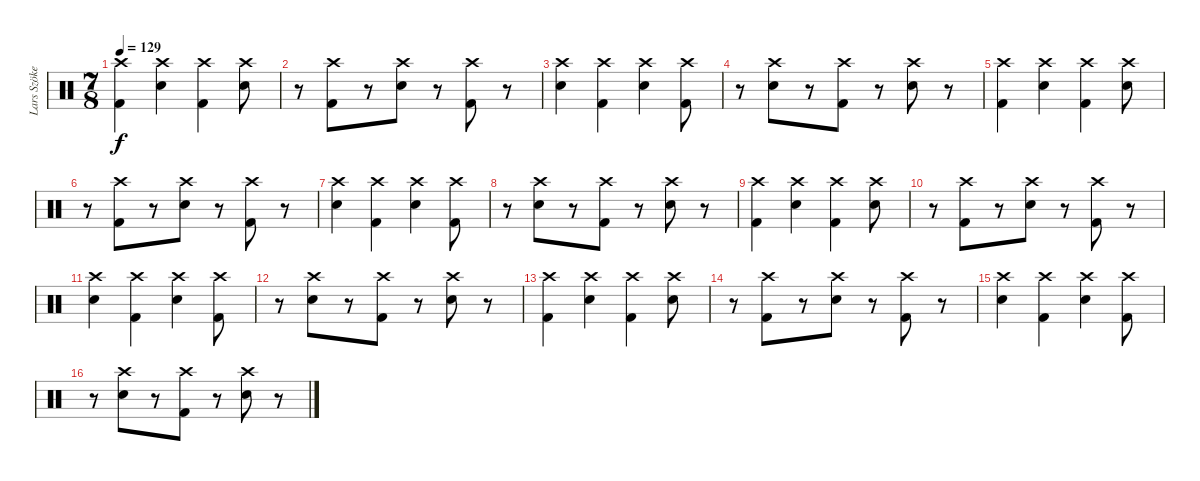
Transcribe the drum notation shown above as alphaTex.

\track ("Lars Szöke" "Lars Szöke") {instrument percussion}
\staff {score}
\articulation defaults
\ts (7 8)
\tempo 129
\clef neutral
\ks c
("Crash high (hit)" "Kick (hit) 2").4{dy f} ("Crash high (hit)" "Snare (hit) 2").4 ("Crash high (hit)" "Kick (hit) 2").4 ("Crash high (hit)" "Snare (hit) 2").8 |
r.8 ("Crash high (hit)" "Kick (hit) 2").8 r.8 ("Crash high (hit)" "Snare (hit) 2").8 r.8 ("Crash high (hit)" "Kick (hit) 2").8 r.8 |
("Crash high (hit)" "Snare (hit) 2").4 ("Crash high (hit)" "Kick (hit) 2").4 ("Crash high (hit)" "Snare (hit) 2").4 ("Crash high (hit)" "Kick (hit) 2").8 |
r.8 ("Crash high (hit)" "Snare (hit) 2").8 r.8 ("Crash high (hit)" "Kick (hit) 2").8 r.8 ("Crash high (hit)" "Snare (hit) 2").8 r.8 |
("Crash high (hit)" "Kick (hit) 2").4 ("Crash high (hit)" "Snare (hit) 2").4 ("Crash high (hit)" "Kick (hit) 2").4 ("Crash high (hit)" "Snare (hit) 2").8 |
r.8 ("Crash high (hit)" "Kick (hit) 2").8 r.8 ("Crash high (hit)" "Snare (hit) 2").8 r.8 ("Crash high (hit)" "Kick (hit) 2").8 r.8 |
("Crash high (hit)" "Snare (hit) 2").4 ("Crash high (hit)" "Kick (hit) 2").4 ("Crash high (hit)" "Snare (hit) 2").4 ("Crash high (hit)" "Kick (hit) 2").8 |
r.8 ("Crash high (hit)" "Snare (hit) 2").8 r.8 ("Crash high (hit)" "Kick (hit) 2").8 r.8 ("Crash high (hit)" "Snare (hit) 2").8 r.8 |
("Crash high (hit)" "Kick (hit) 2").4 ("Crash high (hit)" "Snare (hit) 2").4 ("Crash high (hit)" "Kick (hit) 2").4 ("Crash high (hit)" "Snare (hit) 2").8 |
r.8 ("Crash high (hit)" "Kick (hit) 2").8 r.8 ("Crash high (hit)" "Snare (hit) 2").8 r.8 ("Crash high (hit)" "Kick (hit) 2").8 r.8 |
("Crash high (hit)" "Snare (hit) 2").4 ("Crash high (hit)" "Kick (hit) 2").4 ("Crash high (hit)" "Snare (hit) 2").4 ("Crash high (hit)" "Kick (hit) 2").8 |
r.8 ("Crash high (hit)" "Snare (hit) 2").8 r.8 ("Crash high (hit)" "Kick (hit) 2").8 r.8 ("Crash high (hit)" "Snare (hit) 2").8 r.8 |
("Crash high (hit)" "Kick (hit) 2").4 ("Crash high (hit)" "Snare (hit) 2").4 ("Crash high (hit)" "Kick (hit) 2").4 ("Crash high (hit)" "Snare (hit) 2").8 |
r.8 ("Crash high (hit)" "Kick (hit) 2").8 r.8 ("Crash high (hit)" "Snare (hit) 2").8 r.8 ("Crash high (hit)" "Kick (hit) 2").8 r.8 |
("Crash high (hit)" "Snare (hit) 2").4 ("Crash high (hit)" "Kick (hit) 2").4 ("Crash high (hit)" "Snare (hit) 2").4 ("Crash high (hit)" "Kick (hit) 2").8 |
r.8 ("Crash high (hit)" "Snare (hit) 2").8 r.8 ("Crash high (hit)" "Kick (hit) 2").8 r.8 ("Crash high (hit)" "Snare (hit) 2").8 r.8
